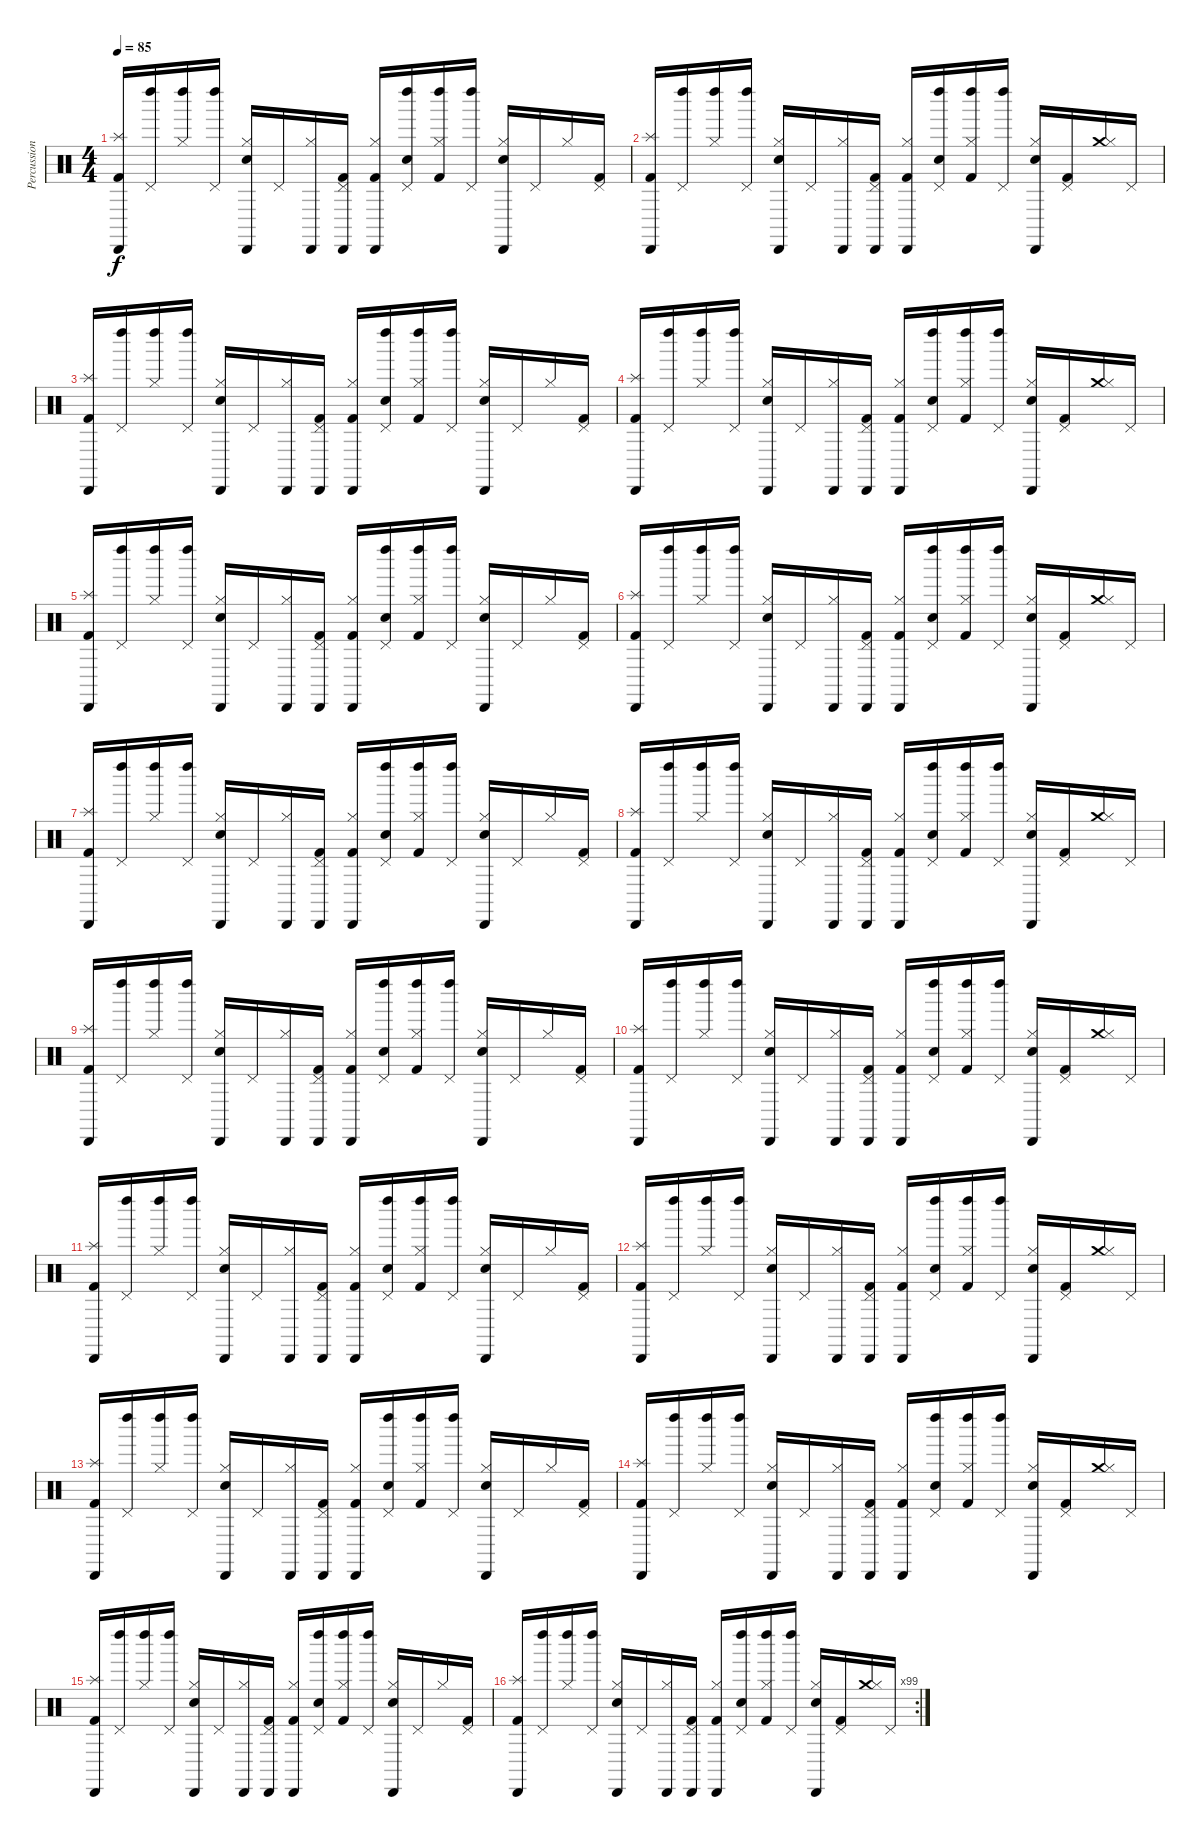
\track ("Percussion" "Percussion") {instrument percussion}
\staff {score}
\articulation defaults
\ts (4 4)
\tempo 85
\clef neutral
\ks c
("Cabasa (hit)" "Splash (hit)" "Kick (hit) 2").16{dy f} ("Left Maraca (hit)" "Pedal Hi-Hat (hit)").16 ("Left Maraca (hit)" "Hi-Hat (closed)").16 ("Left Maraca (hit)" "Pedal Hi-Hat (hit)").16 ("Cabasa (hit)" "Hi-Hat (closed)" "Snare (hit) 2").16 "Pedal Hi-Hat (hit)".16 ("Cabasa (hit)" "Hi-Hat (closed)").16 ("Cabasa (hit)" "Pedal Hi-Hat (hit)" "Kick (hit) 2").16 ("Cabasa (hit)" "Hi-Hat (closed)" "Kick (hit) 2").16 ("Left Maraca (hit)" "Pedal Hi-Hat (hit)" "Snare (hit) 2").16 ("Left Maraca (hit)" "Hi-Hat (closed)" "Kick (hit) 2").16 ("Left Maraca (hit)" "Pedal Hi-Hat (hit)").16 ("Cabasa (hit)" "Hi-Hat (closed)" "Snare (hit) 2").16 "Pedal Hi-Hat (hit)".16 "Hi-Hat (closed)".16 ("Pedal Hi-Hat (hit)" "Kick (hit) 2").16 |
("Cabasa (hit)" "Splash (hit)" "Kick (hit) 2").16 ("Left Maraca (hit)" "Pedal Hi-Hat (hit)").16 ("Left Maraca (hit)" "Hi-Hat (closed)").16 ("Left Maraca (hit)" "Pedal Hi-Hat (hit)").16 ("Cabasa (hit)" "Hi-Hat (closed)" "Snare (hit) 2").16 "Pedal Hi-Hat (hit)".16 ("Cabasa (hit)" "Hi-Hat (closed)").16 ("Cabasa (hit)" "Pedal Hi-Hat (hit)" "Kick (hit) 2").16 ("Cabasa (hit)" "Hi-Hat (closed)" "Kick (hit) 2").16 ("Left Maraca (hit)" "Pedal Hi-Hat (hit)" "Snare (hit) 2").16 ("Left Maraca (hit)" "Hi-Hat (closed)" "Kick (hit) 2").16 ("Left Maraca (hit)" "Pedal Hi-Hat (hit)").16 ("Cabasa (hit)" "Hi-Hat (closed)" "Snare (hit) 2").16 ("Pedal Hi-Hat (hit)" "Kick (hit) 2").16 ("Crash medium (hit)" "Hi-Hat (closed)").16 "Pedal Hi-Hat (hit)".16 |
("Cabasa (hit)" "Splash (hit)" "Kick (hit) 2").16 ("Left Maraca (hit)" "Pedal Hi-Hat (hit)").16 ("Left Maraca (hit)" "Hi-Hat (closed)").16 ("Left Maraca (hit)" "Pedal Hi-Hat (hit)").16 ("Cabasa (hit)" "Hi-Hat (closed)" "Snare (hit) 2").16 "Pedal Hi-Hat (hit)".16 ("Cabasa (hit)" "Hi-Hat (closed)").16 ("Cabasa (hit)" "Pedal Hi-Hat (hit)" "Kick (hit) 2").16 ("Cabasa (hit)" "Hi-Hat (closed)" "Kick (hit) 2").16 ("Left Maraca (hit)" "Pedal Hi-Hat (hit)" "Snare (hit) 2").16 ("Left Maraca (hit)" "Hi-Hat (closed)" "Kick (hit) 2").16 ("Left Maraca (hit)" "Pedal Hi-Hat (hit)").16 ("Cabasa (hit)" "Hi-Hat (closed)" "Snare (hit) 2").16 "Pedal Hi-Hat (hit)".16 "Hi-Hat (closed)".16 ("Pedal Hi-Hat (hit)" "Kick (hit) 2").16 |
("Cabasa (hit)" "Splash (hit)" "Kick (hit) 2").16 ("Left Maraca (hit)" "Pedal Hi-Hat (hit)").16 ("Left Maraca (hit)" "Hi-Hat (closed)").16 ("Left Maraca (hit)" "Pedal Hi-Hat (hit)").16 ("Cabasa (hit)" "Hi-Hat (closed)" "Snare (hit) 2").16 "Pedal Hi-Hat (hit)".16 ("Cabasa (hit)" "Hi-Hat (closed)").16 ("Cabasa (hit)" "Pedal Hi-Hat (hit)" "Kick (hit) 2").16 ("Cabasa (hit)" "Hi-Hat (closed)" "Kick (hit) 2").16 ("Left Maraca (hit)" "Pedal Hi-Hat (hit)" "Snare (hit) 2").16 ("Left Maraca (hit)" "Hi-Hat (closed)" "Kick (hit) 2").16 ("Left Maraca (hit)" "Pedal Hi-Hat (hit)").16 ("Cabasa (hit)" "Hi-Hat (closed)" "Snare (hit) 2").16 ("Pedal Hi-Hat (hit)" "Kick (hit) 2").16 ("Crash medium (hit)" "Hi-Hat (closed)").16 "Pedal Hi-Hat (hit)".16 |
("Cabasa (hit)" "Splash (hit)" "Kick (hit) 2").16 ("Left Maraca (hit)" "Pedal Hi-Hat (hit)").16 ("Left Maraca (hit)" "Hi-Hat (closed)").16 ("Left Maraca (hit)" "Pedal Hi-Hat (hit)").16 ("Cabasa (hit)" "Hi-Hat (closed)" "Snare (hit) 2").16 "Pedal Hi-Hat (hit)".16 ("Cabasa (hit)" "Hi-Hat (closed)").16 ("Cabasa (hit)" "Pedal Hi-Hat (hit)" "Kick (hit) 2").16 ("Cabasa (hit)" "Hi-Hat (closed)" "Kick (hit) 2").16 ("Left Maraca (hit)" "Pedal Hi-Hat (hit)" "Snare (hit) 2").16 ("Left Maraca (hit)" "Hi-Hat (closed)" "Kick (hit) 2").16 ("Left Maraca (hit)" "Pedal Hi-Hat (hit)").16 ("Cabasa (hit)" "Hi-Hat (closed)" "Snare (hit) 2").16 "Pedal Hi-Hat (hit)".16 "Hi-Hat (closed)".16 ("Pedal Hi-Hat (hit)" "Kick (hit) 2").16 |
("Cabasa (hit)" "Splash (hit)" "Kick (hit) 2").16 ("Left Maraca (hit)" "Pedal Hi-Hat (hit)").16 ("Left Maraca (hit)" "Hi-Hat (closed)").16 ("Left Maraca (hit)" "Pedal Hi-Hat (hit)").16 ("Cabasa (hit)" "Hi-Hat (closed)" "Snare (hit) 2").16 "Pedal Hi-Hat (hit)".16 ("Cabasa (hit)" "Hi-Hat (closed)").16 ("Cabasa (hit)" "Pedal Hi-Hat (hit)" "Kick (hit) 2").16 ("Cabasa (hit)" "Hi-Hat (closed)" "Kick (hit) 2").16 ("Left Maraca (hit)" "Pedal Hi-Hat (hit)" "Snare (hit) 2").16 ("Left Maraca (hit)" "Hi-Hat (closed)" "Kick (hit) 2").16 ("Left Maraca (hit)" "Pedal Hi-Hat (hit)").16 ("Cabasa (hit)" "Hi-Hat (closed)" "Snare (hit) 2").16 ("Pedal Hi-Hat (hit)" "Kick (hit) 2").16 ("Crash medium (hit)" "Hi-Hat (closed)").16 "Pedal Hi-Hat (hit)".16 |
("Cabasa (hit)" "Splash (hit)" "Kick (hit) 2").16 ("Left Maraca (hit)" "Pedal Hi-Hat (hit)").16 ("Left Maraca (hit)" "Hi-Hat (closed)").16 ("Left Maraca (hit)" "Pedal Hi-Hat (hit)").16 ("Cabasa (hit)" "Hi-Hat (closed)" "Snare (hit) 2").16 "Pedal Hi-Hat (hit)".16 ("Cabasa (hit)" "Hi-Hat (closed)").16 ("Cabasa (hit)" "Pedal Hi-Hat (hit)" "Kick (hit) 2").16 ("Cabasa (hit)" "Hi-Hat (closed)" "Kick (hit) 2").16 ("Left Maraca (hit)" "Pedal Hi-Hat (hit)" "Snare (hit) 2").16 ("Left Maraca (hit)" "Hi-Hat (closed)" "Kick (hit) 2").16 ("Left Maraca (hit)" "Pedal Hi-Hat (hit)").16 ("Cabasa (hit)" "Hi-Hat (closed)" "Snare (hit) 2").16 "Pedal Hi-Hat (hit)".16 "Hi-Hat (closed)".16 ("Pedal Hi-Hat (hit)" "Kick (hit) 2").16 |
("Cabasa (hit)" "Splash (hit)" "Kick (hit) 2").16 ("Left Maraca (hit)" "Pedal Hi-Hat (hit)").16 ("Left Maraca (hit)" "Hi-Hat (closed)").16 ("Left Maraca (hit)" "Pedal Hi-Hat (hit)").16 ("Cabasa (hit)" "Hi-Hat (closed)" "Snare (hit) 2").16 "Pedal Hi-Hat (hit)".16 ("Cabasa (hit)" "Hi-Hat (closed)").16 ("Cabasa (hit)" "Pedal Hi-Hat (hit)" "Kick (hit) 2").16 ("Cabasa (hit)" "Hi-Hat (closed)" "Kick (hit) 2").16 ("Left Maraca (hit)" "Pedal Hi-Hat (hit)" "Snare (hit) 2").16 ("Left Maraca (hit)" "Hi-Hat (closed)" "Kick (hit) 2").16 ("Left Maraca (hit)" "Pedal Hi-Hat (hit)").16 ("Cabasa (hit)" "Hi-Hat (closed)" "Snare (hit) 2").16 ("Pedal Hi-Hat (hit)" "Kick (hit) 2").16 ("Crash medium (hit)" "Hi-Hat (closed)").16 "Pedal Hi-Hat (hit)".16 |
("Cabasa (hit)" "Splash (hit)" "Kick (hit) 2").16 ("Left Maraca (hit)" "Pedal Hi-Hat (hit)").16 ("Left Maraca (hit)" "Hi-Hat (closed)").16 ("Left Maraca (hit)" "Pedal Hi-Hat (hit)").16 ("Cabasa (hit)" "Hi-Hat (closed)" "Snare (hit) 2").16 "Pedal Hi-Hat (hit)".16 ("Cabasa (hit)" "Hi-Hat (closed)").16 ("Cabasa (hit)" "Pedal Hi-Hat (hit)" "Kick (hit) 2").16 ("Cabasa (hit)" "Hi-Hat (closed)" "Kick (hit) 2").16 ("Left Maraca (hit)" "Pedal Hi-Hat (hit)" "Snare (hit) 2").16 ("Left Maraca (hit)" "Hi-Hat (closed)" "Kick (hit) 2").16 ("Left Maraca (hit)" "Pedal Hi-Hat (hit)").16 ("Cabasa (hit)" "Hi-Hat (closed)" "Snare (hit) 2").16 "Pedal Hi-Hat (hit)".16 "Hi-Hat (closed)".16 ("Pedal Hi-Hat (hit)" "Kick (hit) 2").16 |
("Cabasa (hit)" "Splash (hit)" "Kick (hit) 2").16 ("Left Maraca (hit)" "Pedal Hi-Hat (hit)").16 ("Left Maraca (hit)" "Hi-Hat (closed)").16 ("Left Maraca (hit)" "Pedal Hi-Hat (hit)").16 ("Cabasa (hit)" "Hi-Hat (closed)" "Snare (hit) 2").16 "Pedal Hi-Hat (hit)".16 ("Cabasa (hit)" "Hi-Hat (closed)").16 ("Cabasa (hit)" "Pedal Hi-Hat (hit)" "Kick (hit) 2").16 ("Cabasa (hit)" "Hi-Hat (closed)" "Kick (hit) 2").16 ("Left Maraca (hit)" "Pedal Hi-Hat (hit)" "Snare (hit) 2").16 ("Left Maraca (hit)" "Hi-Hat (closed)" "Kick (hit) 2").16 ("Left Maraca (hit)" "Pedal Hi-Hat (hit)").16 ("Cabasa (hit)" "Hi-Hat (closed)" "Snare (hit) 2").16 ("Pedal Hi-Hat (hit)" "Kick (hit) 2").16 ("Crash medium (hit)" "Hi-Hat (closed)").16 "Pedal Hi-Hat (hit)".16 |
("Cabasa (hit)" "Splash (hit)" "Kick (hit) 2").16 ("Left Maraca (hit)" "Pedal Hi-Hat (hit)").16 ("Left Maraca (hit)" "Hi-Hat (closed)").16 ("Left Maraca (hit)" "Pedal Hi-Hat (hit)").16 ("Cabasa (hit)" "Hi-Hat (closed)" "Snare (hit) 2").16 "Pedal Hi-Hat (hit)".16 ("Cabasa (hit)" "Hi-Hat (closed)").16 ("Cabasa (hit)" "Pedal Hi-Hat (hit)" "Kick (hit) 2").16 ("Cabasa (hit)" "Hi-Hat (closed)" "Kick (hit) 2").16 ("Left Maraca (hit)" "Pedal Hi-Hat (hit)" "Snare (hit) 2").16 ("Left Maraca (hit)" "Hi-Hat (closed)" "Kick (hit) 2").16 ("Left Maraca (hit)" "Pedal Hi-Hat (hit)").16 ("Cabasa (hit)" "Hi-Hat (closed)" "Snare (hit) 2").16 "Pedal Hi-Hat (hit)".16 "Hi-Hat (closed)".16 ("Pedal Hi-Hat (hit)" "Kick (hit) 2").16 |
("Cabasa (hit)" "Splash (hit)" "Kick (hit) 2").16 ("Left Maraca (hit)" "Pedal Hi-Hat (hit)").16 ("Left Maraca (hit)" "Hi-Hat (closed)").16 ("Left Maraca (hit)" "Pedal Hi-Hat (hit)").16 ("Cabasa (hit)" "Hi-Hat (closed)" "Snare (hit) 2").16 "Pedal Hi-Hat (hit)".16 ("Cabasa (hit)" "Hi-Hat (closed)").16 ("Cabasa (hit)" "Pedal Hi-Hat (hit)" "Kick (hit) 2").16 ("Cabasa (hit)" "Hi-Hat (closed)" "Kick (hit) 2").16 ("Left Maraca (hit)" "Pedal Hi-Hat (hit)" "Snare (hit) 2").16 ("Left Maraca (hit)" "Hi-Hat (closed)" "Kick (hit) 2").16 ("Left Maraca (hit)" "Pedal Hi-Hat (hit)").16 ("Cabasa (hit)" "Hi-Hat (closed)" "Snare (hit) 2").16 ("Pedal Hi-Hat (hit)" "Kick (hit) 2").16 ("Crash medium (hit)" "Hi-Hat (closed)").16 "Pedal Hi-Hat (hit)".16 |
("Cabasa (hit)" "Splash (hit)" "Kick (hit) 2").16 ("Left Maraca (hit)" "Pedal Hi-Hat (hit)").16 ("Left Maraca (hit)" "Hi-Hat (closed)").16 ("Left Maraca (hit)" "Pedal Hi-Hat (hit)").16 ("Cabasa (hit)" "Hi-Hat (closed)" "Snare (hit) 2").16 "Pedal Hi-Hat (hit)".16 ("Cabasa (hit)" "Hi-Hat (closed)").16 ("Cabasa (hit)" "Pedal Hi-Hat (hit)" "Kick (hit) 2").16 ("Cabasa (hit)" "Hi-Hat (closed)" "Kick (hit) 2").16 ("Left Maraca (hit)" "Pedal Hi-Hat (hit)" "Snare (hit) 2").16 ("Left Maraca (hit)" "Hi-Hat (closed)" "Kick (hit) 2").16 ("Left Maraca (hit)" "Pedal Hi-Hat (hit)").16 ("Cabasa (hit)" "Hi-Hat (closed)" "Snare (hit) 2").16 "Pedal Hi-Hat (hit)".16 "Hi-Hat (closed)".16 ("Pedal Hi-Hat (hit)" "Kick (hit) 2").16 |
("Cabasa (hit)" "Splash (hit)" "Kick (hit) 2").16 ("Left Maraca (hit)" "Pedal Hi-Hat (hit)").16 ("Left Maraca (hit)" "Hi-Hat (closed)").16 ("Left Maraca (hit)" "Pedal Hi-Hat (hit)").16 ("Cabasa (hit)" "Hi-Hat (closed)" "Snare (hit) 2").16 "Pedal Hi-Hat (hit)".16 ("Cabasa (hit)" "Hi-Hat (closed)").16 ("Cabasa (hit)" "Pedal Hi-Hat (hit)" "Kick (hit) 2").16 ("Cabasa (hit)" "Hi-Hat (closed)" "Kick (hit) 2").16 ("Left Maraca (hit)" "Pedal Hi-Hat (hit)" "Snare (hit) 2").16 ("Left Maraca (hit)" "Hi-Hat (closed)" "Kick (hit) 2").16 ("Left Maraca (hit)" "Pedal Hi-Hat (hit)").16 ("Cabasa (hit)" "Hi-Hat (closed)" "Snare (hit) 2").16 ("Pedal Hi-Hat (hit)" "Kick (hit) 2").16 ("Crash medium (hit)" "Hi-Hat (closed)").16 "Pedal Hi-Hat (hit)".16 |
("Cabasa (hit)" "Splash (hit)" "Kick (hit) 2").16 ("Left Maraca (hit)" "Pedal Hi-Hat (hit)").16 ("Left Maraca (hit)" "Hi-Hat (closed)").16 ("Left Maraca (hit)" "Pedal Hi-Hat (hit)").16 ("Cabasa (hit)" "Hi-Hat (closed)" "Snare (hit) 2").16 "Pedal Hi-Hat (hit)".16 ("Cabasa (hit)" "Hi-Hat (closed)").16 ("Cabasa (hit)" "Pedal Hi-Hat (hit)" "Kick (hit) 2").16 ("Cabasa (hit)" "Hi-Hat (closed)" "Kick (hit) 2").16 ("Left Maraca (hit)" "Pedal Hi-Hat (hit)" "Snare (hit) 2").16 ("Left Maraca (hit)" "Hi-Hat (closed)" "Kick (hit) 2").16 ("Left Maraca (hit)" "Pedal Hi-Hat (hit)").16 ("Cabasa (hit)" "Hi-Hat (closed)" "Snare (hit) 2").16 "Pedal Hi-Hat (hit)".16 "Hi-Hat (closed)".16 ("Pedal Hi-Hat (hit)" "Kick (hit) 2").16 |
\rc 99
("Cabasa (hit)" "Splash (hit)" "Kick (hit) 2").16 ("Left Maraca (hit)" "Pedal Hi-Hat (hit)").16 ("Left Maraca (hit)" "Hi-Hat (closed)").16 ("Left Maraca (hit)" "Pedal Hi-Hat (hit)").16 ("Cabasa (hit)" "Hi-Hat (closed)" "Snare (hit) 2").16 "Pedal Hi-Hat (hit)".16 ("Cabasa (hit)" "Hi-Hat (closed)").16 ("Cabasa (hit)" "Pedal Hi-Hat (hit)" "Kick (hit) 2").16 ("Cabasa (hit)" "Hi-Hat (closed)" "Kick (hit) 2").16 ("Left Maraca (hit)" "Pedal Hi-Hat (hit)" "Snare (hit) 2").16 ("Left Maraca (hit)" "Hi-Hat (closed)" "Kick (hit) 2").16 ("Left Maraca (hit)" "Pedal Hi-Hat (hit)").16 ("Cabasa (hit)" "Hi-Hat (closed)" "Snare (hit) 2").16 ("Pedal Hi-Hat (hit)" "Kick (hit) 2").16 ("Crash medium (hit)" "Hi-Hat (closed)").16 "Pedal Hi-Hat (hit)".16
